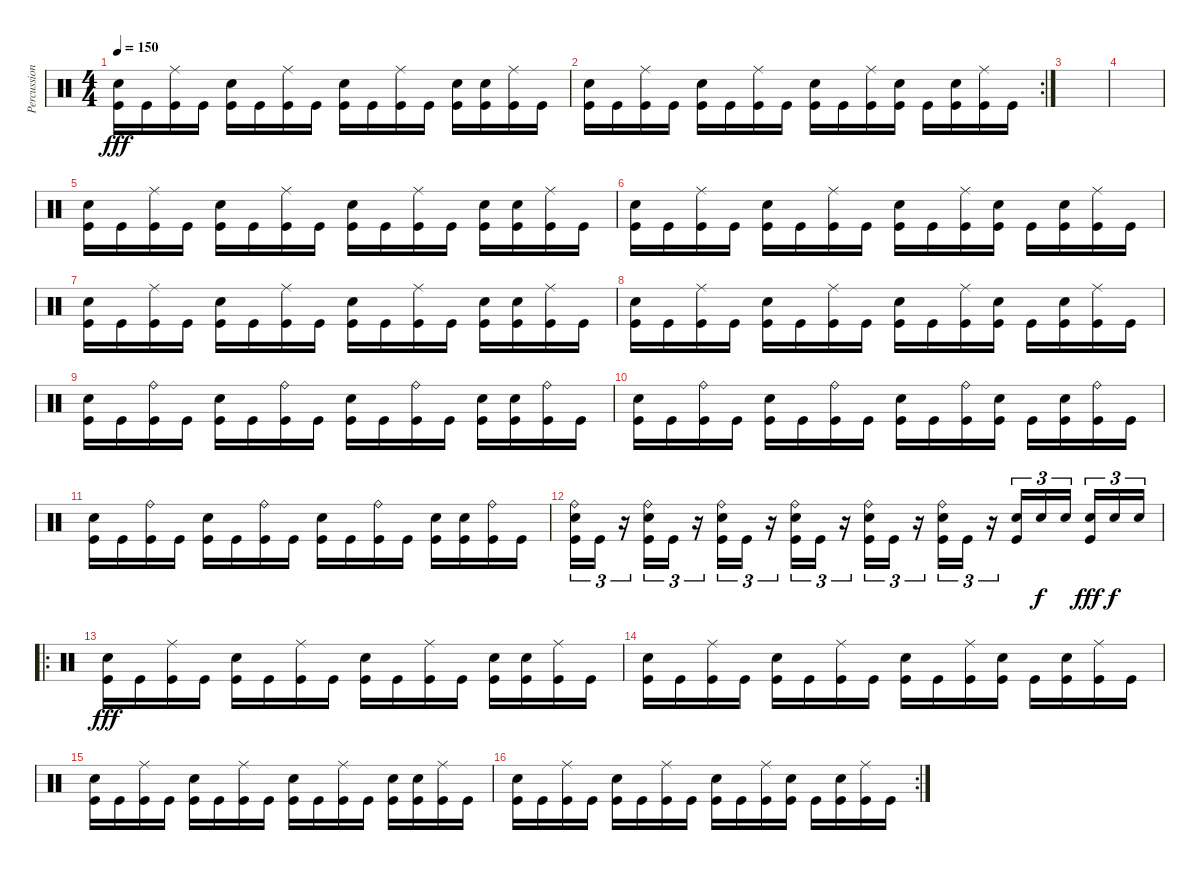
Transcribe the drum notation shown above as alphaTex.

\track ("Percussions" "Percussion") {instrument percussion}
\staff {score}
\articulation defaults
\ts (4 4)
\tempo 150
\clef neutral
\ks c
("Snare (hit) 2" "Kick (hit)").16{dy fff} "Kick (hit)".16 ("Ride (middle)" "Kick (hit)").16 "Kick (hit)".16 ("Snare (hit) 2" "Kick (hit)").16 "Kick (hit)".16 ("Ride (middle)" "Kick (hit)").16 "Kick (hit)".16 ("Snare (hit) 2" "Kick (hit)").16 "Kick (hit)".16 ("Ride (middle)" "Kick (hit)").16 "Kick (hit)".16 ("Snare (hit) 2" "Kick (hit)").16 ("Snare (hit) 2" "Kick (hit)").16 ("Ride (middle)" "Kick (hit)").16 "Kick (hit)".16 |
\rc 2
("Snare (hit) 2" "Kick (hit)").16 "Kick (hit)".16 ("Ride (middle)" "Kick (hit)").16 "Kick (hit)".16 ("Snare (hit) 2" "Kick (hit)").16 "Kick (hit)".16 ("Ride (middle)" "Kick (hit)").16 "Kick (hit)".16 ("Snare (hit) 2" "Kick (hit)").16 "Kick (hit)".16 ("Ride (middle)" "Kick (hit)").16 ("Snare (hit) 2" "Kick (hit)").16 "Kick (hit)".16 ("Snare (hit) 2" "Kick (hit)").16 ("Ride (middle)" "Kick (hit)").16 "Kick (hit)".16 |
|
|
("Snare (hit) 2" "Kick (hit)").16 "Kick (hit)".16 ("Ride (middle)" "Kick (hit)").16 "Kick (hit)".16 ("Snare (hit) 2" "Kick (hit)").16 "Kick (hit)".16 ("Ride (middle)" "Kick (hit)").16 "Kick (hit)".16 ("Snare (hit) 2" "Kick (hit)").16 "Kick (hit)".16 ("Ride (middle)" "Kick (hit)").16 "Kick (hit)".16 ("Snare (hit) 2" "Kick (hit)").16 ("Snare (hit) 2" "Kick (hit)").16 ("Ride (middle)" "Kick (hit)").16 "Kick (hit)".16 |
("Snare (hit) 2" "Kick (hit)").16 "Kick (hit)".16 ("Ride (middle)" "Kick (hit)").16 "Kick (hit)".16 ("Snare (hit) 2" "Kick (hit)").16 "Kick (hit)".16 ("Ride (middle)" "Kick (hit)").16 "Kick (hit)".16 ("Snare (hit) 2" "Kick (hit)").16 "Kick (hit)".16 ("Ride (middle)" "Kick (hit)").16 ("Snare (hit) 2" "Kick (hit)").16 "Kick (hit)".16 ("Snare (hit) 2" "Kick (hit)").16 ("Ride (middle)" "Kick (hit)").16 "Kick (hit)".16 |
("Snare (hit) 2" "Kick (hit)").16 "Kick (hit)".16 ("Ride (middle)" "Kick (hit)").16 "Kick (hit)".16 ("Snare (hit) 2" "Kick (hit)").16 "Kick (hit)".16 ("Ride (middle)" "Kick (hit)").16 "Kick (hit)".16 ("Snare (hit) 2" "Kick (hit)").16 "Kick (hit)".16 ("Ride (middle)" "Kick (hit)").16 "Kick (hit)".16 ("Snare (hit) 2" "Kick (hit)").16 ("Snare (hit) 2" "Kick (hit)").16 ("Ride (middle)" "Kick (hit)").16 "Kick (hit)".16 |
("Snare (hit) 2" "Kick (hit)").16 "Kick (hit)".16 ("Ride (middle)" "Kick (hit)").16 "Kick (hit)".16 ("Snare (hit) 2" "Kick (hit)").16 "Kick (hit)".16 ("Ride (middle)" "Kick (hit)").16 "Kick (hit)".16 ("Snare (hit) 2" "Kick (hit)").16 "Kick (hit)".16 ("Ride (middle)" "Kick (hit)").16 ("Snare (hit) 2" "Kick (hit)").16 "Kick (hit)".16 ("Snare (hit) 2" "Kick (hit)").16 ("Ride (middle)" "Kick (hit)").16 "Kick (hit)".16 |
("Snare (hit) 2" "Kick (hit)").16 "Kick (hit)".16 ("Ride (bell)" "Kick (hit)").16 "Kick (hit)".16 ("Snare (hit) 2" "Kick (hit)").16 "Kick (hit)".16 ("Ride (bell)" "Kick (hit)").16 "Kick (hit)".16 ("Snare (hit) 2" "Kick (hit)").16 "Kick (hit)".16 ("Ride (bell)" "Kick (hit)").16 "Kick (hit)".16 ("Snare (hit) 2" "Kick (hit)").16 ("Snare (hit) 2" "Kick (hit)").16 ("Ride (bell)" "Kick (hit)").16 "Kick (hit)".16 |
("Snare (hit) 2" "Kick (hit)").16 "Kick (hit)".16 ("Ride (bell)" "Kick (hit)").16 "Kick (hit)".16 ("Snare (hit) 2" "Kick (hit)").16 "Kick (hit)".16 ("Ride (bell)" "Kick (hit)").16 "Kick (hit)".16 ("Snare (hit) 2" "Kick (hit)").16 "Kick (hit)".16 ("Ride (bell)" "Kick (hit)").16 ("Snare (hit) 2" "Kick (hit)").16 "Kick (hit)".16 ("Snare (hit) 2" "Kick (hit)").16 ("Ride (bell)" "Kick (hit)").16 "Kick (hit)".16 |
("Snare (hit) 2" "Kick (hit)").16 "Kick (hit)".16 ("Ride (bell)" "Kick (hit)").16 "Kick (hit)".16 ("Snare (hit) 2" "Kick (hit)").16 "Kick (hit)".16 ("Ride (bell)" "Kick (hit)").16 "Kick (hit)".16 ("Snare (hit) 2" "Kick (hit)").16 "Kick (hit)".16 ("Ride (bell)" "Kick (hit)").16 "Kick (hit)".16 ("Snare (hit) 2" "Kick (hit)").16 ("Snare (hit) 2" "Kick (hit)").16 ("Ride (bell)" "Kick (hit)").16 "Kick (hit)".16 |
("Ride (bell)" "Snare (hit) 2" "Kick (hit)").16{tu (3 2)} "Kick (hit)".16{tu (3 2)} r.16{tu (3 2)} ("Ride (bell)" "Snare (hit) 2" "Kick (hit)").16{tu (3 2)} "Kick (hit)".16{tu (3 2)} r.16{tu (3 2)} ("Ride (bell)" "Snare (hit) 2" "Kick (hit)").16{tu (3 2)} "Kick (hit)".16{tu (3 2)} r.16{tu (3 2)} ("Ride (bell)" "Snare (hit) 2" "Kick (hit)").16{tu (3 2)} "Kick (hit)".16{tu (3 2)} r.16{tu (3 2)} ("Ride (bell)" "Snare (hit) 2" "Kick (hit)").16{tu (3 2)} "Kick (hit)".16{tu (3 2)} r.16{tu (3 2)} ("Ride (bell)" "Snare (hit) 2" "Kick (hit)").16{tu (3 2)} "Kick (hit)".16{tu (3 2)} r.16{tu (3 2)} ("Snare (hit) 2" "Kick (hit)").16{tu (3 2)} "Snare (hit) 2".16{tu (3 2) dy f} "Snare (hit) 2".16{tu (3 2)} ("Snare (hit) 2" "Kick (hit)").16{tu (3 2) dy fff} "Snare (hit) 2".16{tu (3 2) dy f} "Snare (hit) 2".16{tu (3 2)} |
\ro
("Snare (hit) 2" "Kick (hit)").16{dy fff} "Kick (hit)".16 ("Ride (middle)" "Kick (hit)").16 "Kick (hit)".16 ("Snare (hit) 2" "Kick (hit)").16 "Kick (hit)".16 ("Ride (middle)" "Kick (hit)").16 "Kick (hit)".16 ("Snare (hit) 2" "Kick (hit)").16 "Kick (hit)".16 ("Ride (middle)" "Kick (hit)").16 "Kick (hit)".16 ("Snare (hit) 2" "Kick (hit)").16 ("Snare (hit) 2" "Kick (hit)").16 ("Ride (middle)" "Kick (hit)").16 "Kick (hit)".16 |
("Snare (hit) 2" "Kick (hit)").16 "Kick (hit)".16 ("Ride (middle)" "Kick (hit)").16 "Kick (hit)".16 ("Snare (hit) 2" "Kick (hit)").16 "Kick (hit)".16 ("Ride (middle)" "Kick (hit)").16 "Kick (hit)".16 ("Snare (hit) 2" "Kick (hit)").16 "Kick (hit)".16 ("Ride (middle)" "Kick (hit)").16 ("Snare (hit) 2" "Kick (hit)").16 "Kick (hit)".16 ("Snare (hit) 2" "Kick (hit)").16 ("Ride (middle)" "Kick (hit)").16 "Kick (hit)".16 |
("Snare (hit) 2" "Kick (hit)").16 "Kick (hit)".16 ("Ride (middle)" "Kick (hit)").16 "Kick (hit)".16 ("Snare (hit) 2" "Kick (hit)").16 "Kick (hit)".16 ("Ride (middle)" "Kick (hit)").16 "Kick (hit)".16 ("Snare (hit) 2" "Kick (hit)").16 "Kick (hit)".16 ("Ride (middle)" "Kick (hit)").16 "Kick (hit)".16 ("Snare (hit) 2" "Kick (hit)").16 ("Snare (hit) 2" "Kick (hit)").16 ("Ride (middle)" "Kick (hit)").16 "Kick (hit)".16 |
\rc 2
("Snare (hit) 2" "Kick (hit)").16 "Kick (hit)".16 ("Ride (middle)" "Kick (hit)").16 "Kick (hit)".16 ("Snare (hit) 2" "Kick (hit)").16 "Kick (hit)".16 ("Ride (middle)" "Kick (hit)").16 "Kick (hit)".16 ("Snare (hit) 2" "Kick (hit)").16 "Kick (hit)".16 ("Ride (middle)" "Kick (hit)").16 ("Snare (hit) 2" "Kick (hit)").16 "Kick (hit)".16 ("Snare (hit) 2" "Kick (hit)").16 ("Ride (middle)" "Kick (hit)").16 "Kick (hit)".16
